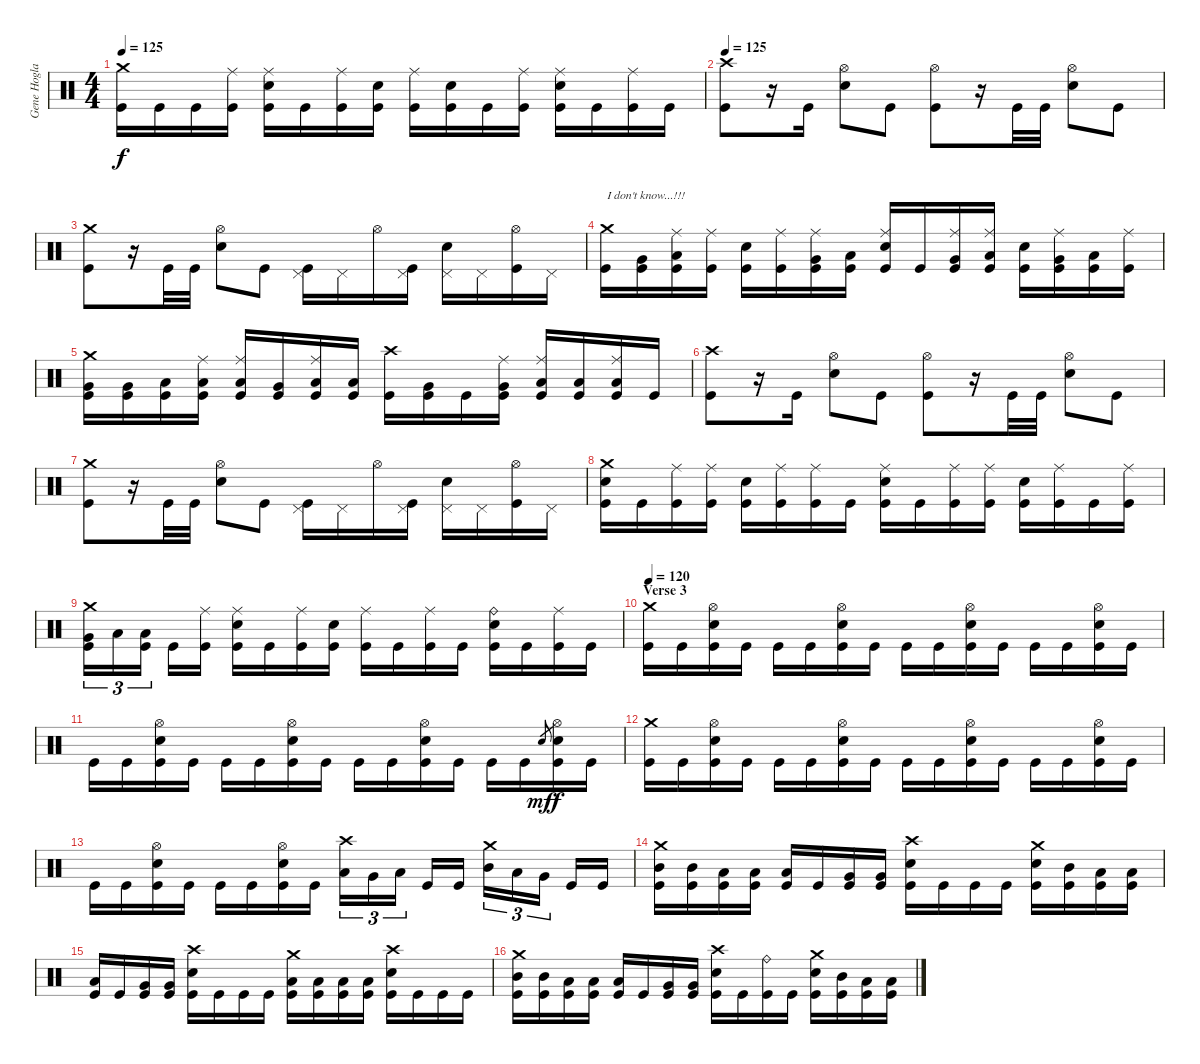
\track ("Gene Hoglan" "Gene Hogla") {instrument percussion}
\staff {score}
\articulation defaults
\ts (4 4)
\tempo 125
\clef neutral
\ks c
("Crash medium (hit)" "Kick (hit)").16{dy f} "Kick (hit)".16 "Kick (hit)".16 ("Ride (middle)" "Kick (hit)").16 ("Ride (middle)" "Electric Snare (hit)" "Kick (hit)").16 "Kick (hit)".16 ("Ride (middle)" "Kick (hit)").16 ("Electric Snare (hit)" "Kick (hit)").16 ("Ride (middle)" "Kick (hit)").16 ("Electric Snare (hit)" "Kick (hit)").16 "Kick (hit)".16 ("Ride (middle)" "Kick (hit)").16 ("Ride (middle)" "Electric Snare (hit)" "Kick (hit)").16 "Kick (hit)".16 ("Ride (middle)" "Kick (hit)").16 "Kick (hit)".16 |
\tempo 125
("Crash high (hit)" "Kick (hit)").8 r.16 "Kick (hit)".16 ("Hi-Hat (open)" "Electric Snare (hit)").8 "Kick (hit)".8 ("Hi-Hat (open)" "Kick (hit)").8 r.16 "Kick (hit)".32 "Kick (hit)".32 ("Hi-Hat (open)" "Electric Snare (hit)").8 "Kick (hit)".8 |
("Crash medium (hit)" "Kick (hit)").8 r.16 "Kick (hit)".32 "Kick (hit)".32 ("Hi-Hat (open)" "Electric Snare (hit)").8 "Kick (hit)".8 ("Pedal Hi-Hat (hit)" "Kick (hit)").16 "Pedal Hi-Hat (hit)".16 "Hi-Hat (open)".16 ("Pedal Hi-Hat (hit)" "Kick (hit)").16 ("Pedal Hi-Hat (hit)" "Electric Snare (hit)").16 "Pedal Hi-Hat (hit)".16 ("Hi-Hat (open)" "Kick (hit)").16 "Pedal Hi-Hat (hit)".16 |
("Crash medium (hit)" "Kick (hit)").16{txt "I don't know...!!!"} ("Very Low Tom (hit)" "Kick (hit)").16 ("Ride (middle)" "Low Floor Tom (hit)" "Kick (hit)").16 ("Ride (middle)" "Kick (hit)").16 ("Electric Snare (hit)" "Kick (hit)").16 ("Ride (middle)" "Kick (hit)").16 ("Ride (middle)" "Very Low Tom (hit)" "Kick (hit)").16 ("Low Floor Tom (hit)" "Kick (hit)").16 ("Ride (middle)" "Electric Snare (hit)" "Kick (hit)").16 "Kick (hit)".16 ("Ride (middle)" "Very Low Tom (hit)" "Kick (hit)").16 ("Ride (middle)" "Low Floor Tom (hit)" "Kick (hit)").16 ("Electric Snare (hit)" "Kick (hit)").16 ("Ride (middle)" "Very Low Tom (hit)" "Kick (hit)").16 ("Low Floor Tom (hit)" "Kick (hit)").16 ("Ride (middle)" "Kick (hit)").16 |
("Crash medium (hit)" "Very Low Tom (hit)" "Kick (hit)").16 ("Very Low Tom (hit)" "Kick (hit)").16 ("Low Floor Tom (hit)" "Kick (hit)").16 ("Ride (middle)" "Low Floor Tom (hit)" "Kick (hit)").16 ("Ride (middle)" "Low Tom (hit)" "Kick (hit)").16 ("Very Low Tom (hit)" "Kick (hit)").16 ("Ride (middle)" "Low Floor Tom (hit)" "Kick (hit)").16 ("Low Floor Tom (hit)" "Kick (hit)").16 ("Crash high (hit)" "Kick (hit)").16 ("Very Low Tom (hit)" "Kick (hit)").16 "Kick (hit)".16 ("Ride (middle)" "Very Low Tom (hit)" "Kick (hit)").16 ("Ride (middle)" "Low Floor Tom (hit)" "Kick (hit)").16 ("Low Floor Tom (hit)" "Kick (hit)").16 ("Ride (middle)" "Low Tom (hit)" "Kick (hit)").16 "Kick (hit)".16 |
("Crash high (hit)" "Kick (hit)").8 r.16 "Kick (hit)".16 ("Hi-Hat (open)" "Electric Snare (hit)").8 "Kick (hit)".8 ("Hi-Hat (open)" "Kick (hit)").8 r.16 "Kick (hit)".32 "Kick (hit)".32 ("Hi-Hat (open)" "Electric Snare (hit)").8 "Kick (hit)".8 |
("Crash medium (hit)" "Kick (hit)").8 r.16 "Kick (hit)".32 "Kick (hit)".32 ("Hi-Hat (open)" "Electric Snare (hit)").8 "Kick (hit)".8 ("Pedal Hi-Hat (hit)" "Kick (hit)").16 "Pedal Hi-Hat (hit)".16 "Hi-Hat (open)".16 ("Pedal Hi-Hat (hit)" "Kick (hit)").16 ("Pedal Hi-Hat (hit)" "Electric Snare (hit)").16 "Pedal Hi-Hat (hit)".16 ("Hi-Hat (open)" "Kick (hit)").16 "Pedal Hi-Hat (hit)".16 |
("Crash medium (hit)" "Electric Snare (hit)" "Kick (hit)").16 "Kick (hit)".16 ("Ride (middle)" "Kick (hit)").16 ("Ride (middle)" "Kick (hit)").16 ("Electric Snare (hit)" "Kick (hit)").16 ("Ride (middle)" "Kick (hit)").16 ("Ride (middle)" "Kick (hit)").16 "Kick (hit)".16 ("Ride (middle)" "Electric Snare (hit)" "Kick (hit)").16 "Kick (hit)".16 ("Ride (middle)" "Kick (hit)").16 ("Ride (middle)" "Kick (hit)").16 ("Electric Snare (hit)" "Kick (hit)").16 ("Ride (middle)" "Kick (hit)").16 "Kick (hit)".16 ("Ride (middle)" "Kick (hit)").16 |
("Crash medium (hit)" "Very Low Tom (hit)" "Kick (hit)").16{tu (3 2)} "Low Floor Tom (hit)".16{tu (3 2)} ("Low Floor Tom (hit)" "Kick (hit)").16{tu (3 2)} "Kick (hit)".16 ("Ride (middle)" "Kick (hit)").16 ("Ride (middle)" "Electric Snare (hit)" "Kick (hit)").16 "Kick (hit)".16 ("Ride (middle)" "Kick (hit)").16 ("Electric Snare (hit)" "Kick (hit)").16 ("Ride (middle)" "Kick (hit)").16 "Kick (hit)".16 ("Ride (middle)" "Kick (hit)").16 "Kick (hit)".16 ("Ride (bell)" "Electric Snare (hit)" "Kick (hit)").16 "Kick (hit)".16 ("Ride (middle)" "Kick (hit)").16 "Kick (hit)".16 |
\section ("" "Verse 3")
\tempo 120
("Crash medium (hit)" "Kick (hit)").16 "Kick (hit)".16 ("Hi-Hat (open)" "Electric Snare (hit)" "Kick (hit)").16 "Kick (hit)".16 "Kick (hit)".16 "Kick (hit)".16 ("Hi-Hat (open)" "Electric Snare (hit)" "Kick (hit)").16 "Kick (hit)".16 "Kick (hit)".16 "Kick (hit)".16 ("Hi-Hat (open)" "Electric Snare (hit)" "Kick (hit)").16 "Kick (hit)".16 "Kick (hit)".16 "Kick (hit)".16 ("Hi-Hat (open)" "Electric Snare (hit)" "Kick (hit)").16 "Kick (hit)".16 |
"Kick (hit)".16 "Kick (hit)".16 ("Hi-Hat (open)" "Electric Snare (hit)" "Kick (hit)").16 "Kick (hit)".16 "Kick (hit)".16 "Kick (hit)".16 ("Hi-Hat (open)" "Electric Snare (hit)" "Kick (hit)").16 "Kick (hit)".16 "Kick (hit)".16 "Kick (hit)".16 ("Hi-Hat (open)" "Electric Snare (hit)" "Kick (hit)").16 "Kick (hit)".16 "Kick (hit)".16 "Kick (hit)".16 "Electric Snare (hit)".8{gr dy mf} ("Hi-Hat (open)" "Electric Snare (hit)" "Kick (hit)").16{dy f} "Kick (hit)".16 |
("Crash medium (hit)" "Kick (hit)").16 "Kick (hit)".16 ("Hi-Hat (open)" "Electric Snare (hit)" "Kick (hit)").16 "Kick (hit)".16 "Kick (hit)".16 "Kick (hit)".16 ("Hi-Hat (open)" "Electric Snare (hit)" "Kick (hit)").16 "Kick (hit)".16 "Kick (hit)".16 "Kick (hit)".16 ("Hi-Hat (open)" "Electric Snare (hit)" "Kick (hit)").16 "Kick (hit)".16 "Kick (hit)".16 "Kick (hit)".16 ("Hi-Hat (open)" "Electric Snare (hit)" "Kick (hit)").16 "Kick (hit)".16 |
"Kick (hit)".16 "Kick (hit)".16 ("Hi-Hat (open)" "Electric Snare (hit)" "Kick (hit)").16 "Kick (hit)".16 "Kick (hit)".16 "Kick (hit)".16 ("Hi-Hat (open)" "Electric Snare (hit)" "Kick (hit)").16 "Kick (hit)".16 ("Crash high (hit)" "Low Tom (hit)").16{tu (3 2)} "Very Low Tom (hit)".16{tu (3 2)} "Low Floor Tom (hit)".16{tu (3 2)} "Kick (hit)".16 "Kick (hit)".16 ("Crash medium (hit)" "Mid Tom (hit)").16{tu (3 2)} "Low Tom (hit)".16{tu (3 2)} "Very Low Tom (hit)".16{tu (3 2)} "Kick (hit)".16 "Kick (hit)".16 |
("Crash medium (hit)" "Mid Tom (hit)" "Kick (hit)").16 ("Mid Tom (hit)" "Kick (hit)").16 ("Low Tom (hit)" "Kick (hit)").16 ("Low Tom (hit)" "Kick (hit)").16 ("Low Tom (hit)" "Kick (hit)").16 "Kick (hit)".16 ("Very Low Tom (hit)" "Kick (hit)").16 ("Very Low Tom (hit)" "Kick (hit)").16 ("Crash high (hit)" "Electric Snare (hit)" "Kick (hit)").16 "Kick (hit)".16 "Kick (hit)".16 "Kick (hit)".16 ("Crash medium (hit)" "Electric Snare (hit)" "Kick (hit)").16 ("Mid Tom (hit)" "Kick (hit)").16 ("Low Tom (hit)" "Kick (hit)").16 ("Low Tom (hit)" "Kick (hit)").16 |
("Low Tom (hit)" "Kick (hit)").16 "Kick (hit)".16 ("Very Low Tom (hit)" "Kick (hit)").16 ("Very Low Tom (hit)" "Kick (hit)").16 ("Crash high (hit)" "Electric Snare (hit)" "Kick (hit)").16 "Kick (hit)".16 "Kick (hit)".16 "Kick (hit)".16 ("Crash medium (hit)" "Low Tom (hit)" "Kick (hit)").16 ("Low Tom (hit)" "Kick (hit)").16 ("Low Tom (hit)" "Kick (hit)").16 ("Low Tom (hit)" "Kick (hit)").16 ("Crash high (hit)" "Electric Snare (hit)" "Kick (hit)").16 "Kick (hit)".16 "Kick (hit)".16 "Kick (hit)".16 |
("Crash medium (hit)" "Mid Tom (hit)" "Kick (hit)").16 ("Mid Tom (hit)" "Kick (hit)").16 ("Low Tom (hit)" "Kick (hit)").16 ("Low Tom (hit)" "Kick (hit)").16 ("Low Tom (hit)" "Kick (hit)").16 "Kick (hit)".16 ("Very Low Tom (hit)" "Kick (hit)").16 ("Very Low Tom (hit)" "Kick (hit)").16 ("Crash high (hit)" "Electric Snare (hit)" "Kick (hit)").16 "Kick (hit)".16 ("Ride (bell)" "Kick (hit)").16 "Kick (hit)".16 ("Crash medium (hit)" "Electric Snare (hit)" "Kick (hit)").16 ("Mid Tom (hit)" "Kick (hit)").16 ("Low Tom (hit)" "Kick (hit)").16 ("Low Tom (hit)" "Kick (hit)").16
